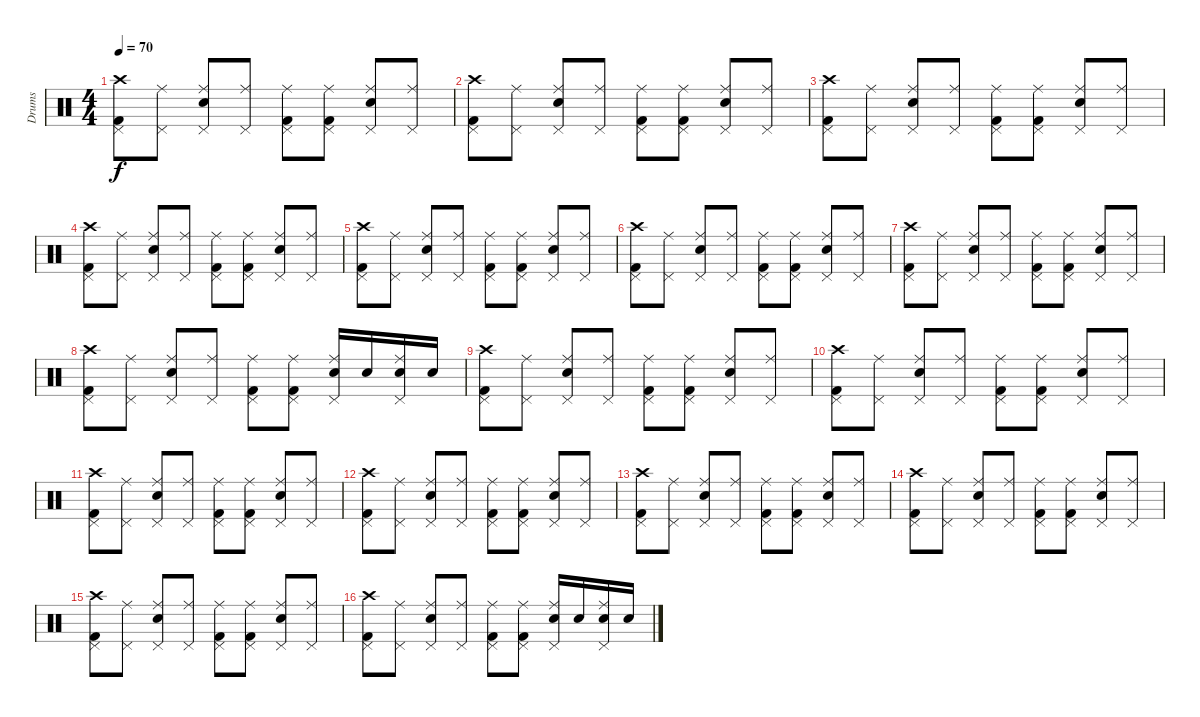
\track ("Drums" "Drums") {instrument percussion}
\staff {score}
\articulation defaults
\ts (4 4)
\tempo 70
\clef neutral
\ks c
("Crash high (hit)" "Kick (hit) 2" "Pedal Hi-Hat (hit)").8{dy f} ("Ride (middle)" "Pedal Hi-Hat (hit)").8 ("Ride (middle)" "Electric Snare (hit)" "Pedal Hi-Hat (hit)").8 ("Ride (middle)" "Pedal Hi-Hat (hit)").8 ("Ride (middle)" "Kick (hit) 2" "Pedal Hi-Hat (hit)").8 ("Ride (middle)" "Kick (hit) 2" "Pedal Hi-Hat (hit)").8 ("Ride (middle)" "Electric Snare (hit)" "Pedal Hi-Hat (hit)").8 ("Ride (middle)" "Pedal Hi-Hat (hit)").8 |
("Crash high (hit)" "Kick (hit) 2" "Pedal Hi-Hat (hit)").8 ("Ride (middle)" "Pedal Hi-Hat (hit)").8 ("Ride (middle)" "Electric Snare (hit)" "Pedal Hi-Hat (hit)").8 ("Ride (middle)" "Pedal Hi-Hat (hit)").8 ("Ride (middle)" "Kick (hit) 2" "Pedal Hi-Hat (hit)").8 ("Ride (middle)" "Kick (hit) 2" "Pedal Hi-Hat (hit)").8 ("Ride (middle)" "Electric Snare (hit)" "Pedal Hi-Hat (hit)").8 ("Ride (middle)" "Pedal Hi-Hat (hit)").8 |
("Crash high (hit)" "Kick (hit) 2" "Pedal Hi-Hat (hit)").8 ("Ride (middle)" "Pedal Hi-Hat (hit)").8 ("Ride (middle)" "Electric Snare (hit)" "Pedal Hi-Hat (hit)").8 ("Ride (middle)" "Pedal Hi-Hat (hit)").8 ("Ride (middle)" "Kick (hit) 2" "Pedal Hi-Hat (hit)").8 ("Ride (middle)" "Kick (hit) 2" "Pedal Hi-Hat (hit)").8 ("Ride (middle)" "Electric Snare (hit)" "Pedal Hi-Hat (hit)").8 ("Ride (middle)" "Pedal Hi-Hat (hit)").8 |
("Crash high (hit)" "Kick (hit) 2" "Pedal Hi-Hat (hit)").8 ("Ride (middle)" "Pedal Hi-Hat (hit)").8 ("Ride (middle)" "Electric Snare (hit)" "Pedal Hi-Hat (hit)").8 ("Ride (middle)" "Pedal Hi-Hat (hit)").8 ("Ride (middle)" "Kick (hit) 2" "Pedal Hi-Hat (hit)").8 ("Ride (middle)" "Kick (hit) 2" "Pedal Hi-Hat (hit)").8 ("Ride (middle)" "Electric Snare (hit)" "Pedal Hi-Hat (hit)").8 ("Ride (middle)" "Pedal Hi-Hat (hit)").8 |
("Crash high (hit)" "Kick (hit) 2" "Pedal Hi-Hat (hit)").8 ("Ride (middle)" "Pedal Hi-Hat (hit)").8 ("Ride (middle)" "Electric Snare (hit)" "Pedal Hi-Hat (hit)").8 ("Ride (middle)" "Pedal Hi-Hat (hit)").8 ("Ride (middle)" "Kick (hit) 2" "Pedal Hi-Hat (hit)").8 ("Ride (middle)" "Kick (hit) 2" "Pedal Hi-Hat (hit)").8 ("Ride (middle)" "Electric Snare (hit)" "Pedal Hi-Hat (hit)").8 ("Ride (middle)" "Pedal Hi-Hat (hit)").8 |
("Crash high (hit)" "Kick (hit) 2" "Pedal Hi-Hat (hit)").8 ("Ride (middle)" "Pedal Hi-Hat (hit)").8 ("Ride (middle)" "Electric Snare (hit)" "Pedal Hi-Hat (hit)").8 ("Ride (middle)" "Pedal Hi-Hat (hit)").8 ("Ride (middle)" "Kick (hit) 2" "Pedal Hi-Hat (hit)").8 ("Ride (middle)" "Kick (hit) 2" "Pedal Hi-Hat (hit)").8 ("Ride (middle)" "Electric Snare (hit)" "Pedal Hi-Hat (hit)").8 ("Ride (middle)" "Pedal Hi-Hat (hit)").8 |
("Crash high (hit)" "Kick (hit) 2" "Pedal Hi-Hat (hit)").8 ("Ride (middle)" "Pedal Hi-Hat (hit)").8 ("Ride (middle)" "Electric Snare (hit)" "Pedal Hi-Hat (hit)").8 ("Ride (middle)" "Pedal Hi-Hat (hit)").8 ("Ride (middle)" "Kick (hit) 2" "Pedal Hi-Hat (hit)").8 ("Ride (middle)" "Kick (hit) 2" "Pedal Hi-Hat (hit)").8 ("Ride (middle)" "Electric Snare (hit)" "Pedal Hi-Hat (hit)").8 ("Ride (middle)" "Pedal Hi-Hat (hit)").8 |
("Crash high (hit)" "Kick (hit) 2" "Pedal Hi-Hat (hit)").8 ("Ride (middle)" "Pedal Hi-Hat (hit)").8 ("Ride (middle)" "Electric Snare (hit)" "Pedal Hi-Hat (hit)").8 ("Ride (middle)" "Pedal Hi-Hat (hit)").8 ("Ride (middle)" "Kick (hit) 2" "Pedal Hi-Hat (hit)").8 ("Ride (middle)" "Kick (hit) 2" "Pedal Hi-Hat (hit)").8 ("Ride (middle)" "Electric Snare (hit)" "Pedal Hi-Hat (hit)").16 "Electric Snare (hit)".16 ("Ride (middle)" "Electric Snare (hit)" "Pedal Hi-Hat (hit)").16 "Electric Snare (hit)".16 |
("Crash high (hit)" "Kick (hit) 2" "Pedal Hi-Hat (hit)").8 ("Ride (middle)" "Pedal Hi-Hat (hit)").8 ("Ride (middle)" "Electric Snare (hit)" "Pedal Hi-Hat (hit)").8 ("Ride (middle)" "Pedal Hi-Hat (hit)").8 ("Ride (middle)" "Kick (hit) 2" "Pedal Hi-Hat (hit)").8 ("Ride (middle)" "Kick (hit) 2" "Pedal Hi-Hat (hit)").8 ("Ride (middle)" "Electric Snare (hit)" "Pedal Hi-Hat (hit)").8 ("Ride (middle)" "Pedal Hi-Hat (hit)").8 |
("Crash high (hit)" "Kick (hit) 2" "Pedal Hi-Hat (hit)").8 ("Ride (middle)" "Pedal Hi-Hat (hit)").8 ("Ride (middle)" "Electric Snare (hit)" "Pedal Hi-Hat (hit)").8 ("Ride (middle)" "Pedal Hi-Hat (hit)").8 ("Ride (middle)" "Kick (hit) 2" "Pedal Hi-Hat (hit)").8 ("Ride (middle)" "Kick (hit) 2" "Pedal Hi-Hat (hit)").8 ("Ride (middle)" "Electric Snare (hit)" "Pedal Hi-Hat (hit)").8 ("Ride (middle)" "Pedal Hi-Hat (hit)").8 |
("Crash high (hit)" "Kick (hit) 2" "Pedal Hi-Hat (hit)").8 ("Ride (middle)" "Pedal Hi-Hat (hit)").8 ("Ride (middle)" "Electric Snare (hit)" "Pedal Hi-Hat (hit)").8 ("Ride (middle)" "Pedal Hi-Hat (hit)").8 ("Ride (middle)" "Kick (hit) 2" "Pedal Hi-Hat (hit)").8 ("Ride (middle)" "Kick (hit) 2" "Pedal Hi-Hat (hit)").8 ("Ride (middle)" "Electric Snare (hit)" "Pedal Hi-Hat (hit)").8 ("Ride (middle)" "Pedal Hi-Hat (hit)").8 |
("Crash high (hit)" "Kick (hit) 2" "Pedal Hi-Hat (hit)").8 ("Ride (middle)" "Pedal Hi-Hat (hit)").8 ("Ride (middle)" "Electric Snare (hit)" "Pedal Hi-Hat (hit)").8 ("Ride (middle)" "Pedal Hi-Hat (hit)").8 ("Ride (middle)" "Kick (hit) 2" "Pedal Hi-Hat (hit)").8 ("Ride (middle)" "Kick (hit) 2" "Pedal Hi-Hat (hit)").8 ("Ride (middle)" "Electric Snare (hit)" "Pedal Hi-Hat (hit)").8 ("Ride (middle)" "Pedal Hi-Hat (hit)").8 |
("Crash high (hit)" "Kick (hit) 2" "Pedal Hi-Hat (hit)").8 ("Ride (middle)" "Pedal Hi-Hat (hit)").8 ("Ride (middle)" "Electric Snare (hit)" "Pedal Hi-Hat (hit)").8 ("Ride (middle)" "Pedal Hi-Hat (hit)").8 ("Ride (middle)" "Kick (hit) 2" "Pedal Hi-Hat (hit)").8 ("Ride (middle)" "Kick (hit) 2" "Pedal Hi-Hat (hit)").8 ("Ride (middle)" "Electric Snare (hit)" "Pedal Hi-Hat (hit)").8 ("Ride (middle)" "Pedal Hi-Hat (hit)").8 |
("Crash high (hit)" "Kick (hit) 2" "Pedal Hi-Hat (hit)").8 ("Ride (middle)" "Pedal Hi-Hat (hit)").8 ("Ride (middle)" "Electric Snare (hit)" "Pedal Hi-Hat (hit)").8 ("Ride (middle)" "Pedal Hi-Hat (hit)").8 ("Ride (middle)" "Kick (hit) 2" "Pedal Hi-Hat (hit)").8 ("Ride (middle)" "Kick (hit) 2" "Pedal Hi-Hat (hit)").8 ("Ride (middle)" "Electric Snare (hit)" "Pedal Hi-Hat (hit)").8 ("Ride (middle)" "Pedal Hi-Hat (hit)").8 |
("Crash high (hit)" "Kick (hit) 2" "Pedal Hi-Hat (hit)").8 ("Ride (middle)" "Pedal Hi-Hat (hit)").8 ("Ride (middle)" "Electric Snare (hit)" "Pedal Hi-Hat (hit)").8 ("Ride (middle)" "Pedal Hi-Hat (hit)").8 ("Ride (middle)" "Kick (hit) 2" "Pedal Hi-Hat (hit)").8 ("Ride (middle)" "Kick (hit) 2" "Pedal Hi-Hat (hit)").8 ("Ride (middle)" "Electric Snare (hit)" "Pedal Hi-Hat (hit)").8 ("Ride (middle)" "Pedal Hi-Hat (hit)").8 |
("Crash high (hit)" "Kick (hit) 2" "Pedal Hi-Hat (hit)").8 ("Ride (middle)" "Pedal Hi-Hat (hit)").8 ("Ride (middle)" "Electric Snare (hit)" "Pedal Hi-Hat (hit)").8 ("Ride (middle)" "Pedal Hi-Hat (hit)").8 ("Ride (middle)" "Kick (hit) 2" "Pedal Hi-Hat (hit)").8 ("Ride (middle)" "Kick (hit) 2" "Pedal Hi-Hat (hit)").8 ("Ride (middle)" "Electric Snare (hit)" "Pedal Hi-Hat (hit)").16 "Electric Snare (hit)".16 ("Ride (middle)" "Electric Snare (hit)" "Pedal Hi-Hat (hit)").16 "Electric Snare (hit)".16
